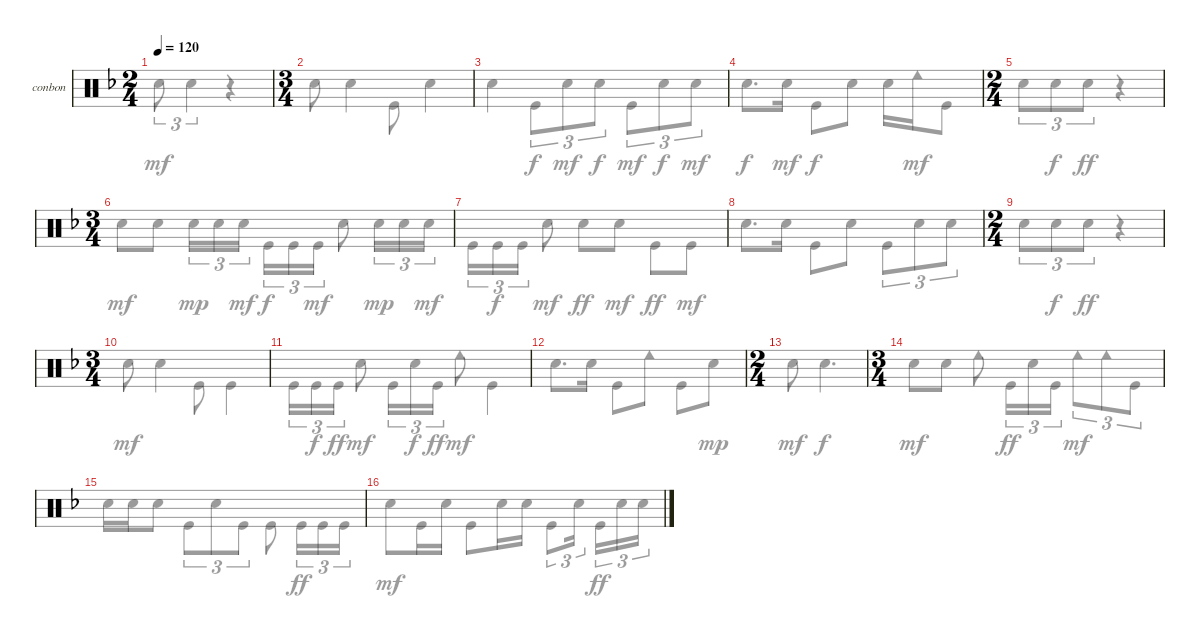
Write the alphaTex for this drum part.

\defaultSystemsLayout 4
\bracketExtendMode groupsimilarinstruments
\firstSystemTrackNameOrientation horizontal
\otherSystemsTrackNameOrientation horizontal
\track ("Bongos N Congas" "conbon") {instrument percussion}
\staff {score}
\articulation defaults
\voice
\ts (2 4)
\tempo 120
\clef neutral
\ks f
|
\ts (3 4)
|
|
|
\ts (2 4)
|
\ts (3 4)
|
|
|
\ts (2 4)
|
\ts (3 4)
|
|
|
\ts (2 4)
|
\ts (3 4)
|
|
\voice
\clef neutral
\ks f "Snare (hit) 2".8{tu (3 2) dy mf} "Snare (hit) 2".4{tu (3 2)}
r.4 |
"Snare (hit) 2".8 "Snare (hit) 2".4 "Kick (hit)".8 "Snare (hit) 2".4 |
"Snare (hit) 2".4 "Kick (hit)".8{tu (3 2) dy f} "Snare (hit) 2".8{tu (3 2) dy mf} "Snare (hit) 2".8{tu (3 2) dy f} "Kick (hit)".8{tu (3 2) dy mf} "Snare (hit) 2".8{tu (3 2) dy f} "Snare (hit) 2".8{tu (3 2) dy mf} |
"Snare (hit) 2".8{d dy f} "Snare (hit) 2".16{dy mf} "Kick (hit)".8{dy f} "Snare (hit) 2".8 "Snare (hit) 2".16 "Cowbell low (hit)".16{dy mf} "Kick (hit)".8 |
"Snare (hit) 2".8{tu (3 2)} "Snare (hit) 2".8{tu (3 2) dy f} "Snare (hit) 2".8{tu (3 2) dy ff} r.4 |
"Snare (hit) 2".8{dy mf} "Snare (hit) 2".8 "Snare (hit) 2".16{tu (3 2) dy mp} "Snare (hit) 2".16{tu (3 2)} "Snare (hit) 2".16{tu (3 2) dy mf} "Kick (hit)".16{tu (3 2) dy f} "Kick (hit)".16{tu (3 2)} "Kick (hit)".16{tu (3 2) dy mf} "Snare (hit) 2".8 "Snare (hit) 2".16{tu (3 2) dy mp} "Snare (hit) 2".16{tu (3 2)} "Snare (hit) 2".16{tu (3 2) dy mf} |
"Kick (hit)".16{tu (3 2)} "Kick (hit)".16{tu (3 2) dy f} "Kick (hit)".16{tu (3 2)} "Snare (hit) 2".8{dy mf} "Snare (hit) 2".8{dy ff} "Snare (hit) 2".8{dy mf} "Kick (hit)".8{dy ff} "Kick (hit)".8{dy mf} |
"Snare (hit) 2".8{d} "Snare (hit) 2".16 "Kick (hit)".8 "Snare (hit) 2".8 "Kick (hit)".8{tu (3 2)} "Snare (hit) 2".8{tu (3 2)} "Snare (hit) 2".8{tu (3 2)} |
"Snare (hit) 2".8{tu (3 2)} "Snare (hit) 2".8{tu (3 2) dy f} "Snare (hit) 2".8{tu (3 2) dy ff} r.4 |
"Snare (hit) 2".8{dy mf} "Snare (hit) 2".4 "Kick (hit)".8 "Kick (hit)".4 |
"Kick (hit)".16{tu (3 2)} "Kick (hit)".16{tu (3 2) dy f} "Kick (hit)".16{tu (3 2) dy ff} "Snare (hit) 2".8{dy mf} "Kick (hit)".16{tu (3 2)} "Snare (hit) 2".16{tu (3 2) dy f} "Kick (hit)".16{tu (3 2) dy ff} "Cowbell low (hit)".8{dy mf} "Kick (hit)".4 |
"Snare (hit) 2".8{d} "Snare (hit) 2".16 "Kick (hit)".8 "Cowbell low (hit)".8 "Kick (hit)".8 "Snare (hit) 2".8{dy mp} |
"Snare (hit) 2".8{dy mf} "Snare (hit) 2".4{d dy f} |
"Snare (hit) 2".8{dy mf} "Snare (hit) 2".8 "Cowbell low (hit)".8 "Kick (hit)".16{tu (3 2) dy ff} "Snare (hit) 2".16{tu (3 2)} "Kick (hit)".16{tu (3 2)} "Cowbell low (hit)".8{tu (3 2) dy mf} "Cowbell low (hit)".8{tu (3 2)} "Kick (hit)".8{tu (3 2)} |
"Snare (hit) 2".16 "Snare (hit) 2".16 "Snare (hit) 2".8 "Kick (hit)".8{tu (3 2)} "Snare (hit) 2".8{tu (3 2)} "Kick (hit)".8{tu (3 2)} "Kick (hit)".8 "Kick (hit)".16{tu (3 2) dy ff} "Kick (hit)".16{tu (3 2)} "Kick (hit)".16{tu (3 2)} |
"Snare (hit) 2".8{dy mf} "Kick (hit)".16 "Snare (hit) 2".16 "Kick (hit)".8 "Snare (hit) 2".16 "Snare (hit) 2".16 "Kick (hit)".8{tu (3 2)} "Snare (hit) 2".16{tu (3 2)} "Kick (hit)".16{tu (3 2) dy ff} "Snare (hit) 2".16{tu (3 2)} "Snare (hit) 2".16{tu (3 2)}
